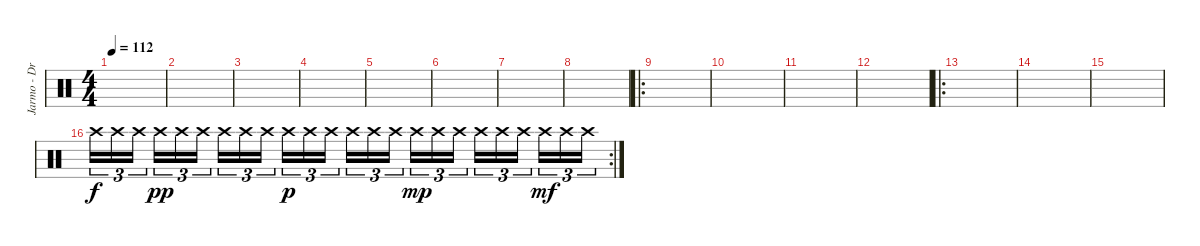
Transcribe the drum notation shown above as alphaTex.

\track ("Jarmo - Drummies" "Jarmo - Dr") {instrument percussion}
\staff {score}
\articulation defaults
\ts (4 4)
\tempo 112
\clef neutral
\ks c
|
|
|
|
|
|
|
|
\ro
|
|
|
|
\ro
|
|
|
\rc 2 "Crash high (hit)".16{tu (3 2)} "Crash high (hit)".16{tu (3 2)} "Crash high (hit)".16{tu (3 2)} "Crash high (hit)".16{tu (3 2) dy pp} "Crash high (hit)".16{tu (3 2)} "Crash high (hit)".16{tu (3 2)} "Crash high (hit)".16{tu (3 2)} "Crash high (hit)".16{tu (3 2)} "Crash high (hit)".16{tu (3 2)} "Crash high (hit)".16{tu (3 2) dy p} "Crash high (hit)".16{tu (3 2)} "Crash high (hit)".16{tu (3 2)} "Crash high (hit)".16{tu (3 2)} "Crash high (hit)".16{tu (3 2)} "Crash high (hit)".16{tu (3 2)} "Crash high (hit)".16{tu (3 2) dy mp} "Crash high (hit)".16{tu (3 2)} "Crash high (hit)".16{tu (3 2)} "Crash high (hit)".16{tu (3 2)} "Crash high (hit)".16{tu (3 2)} "Crash high (hit)".16{tu (3 2)} "Crash high (hit)".16{tu (3 2) dy mf} "Crash high (hit)".16{tu (3 2)} "Crash high (hit)".16{tu (3 2)}
